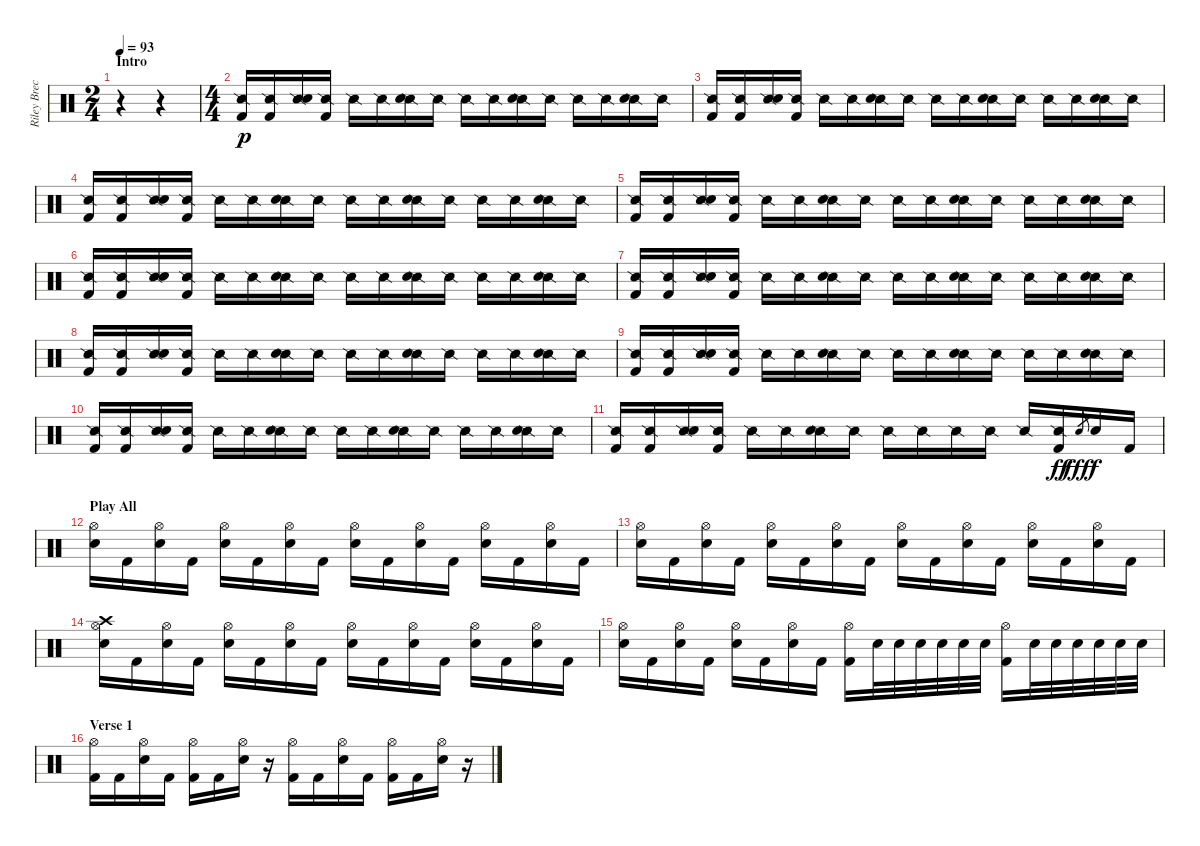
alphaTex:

\track ("Riley Breckenridge" "Riley Brec") {instrument percussion}
\staff {score}
\articulation defaults
\ts (2 4)
\section ("" "Intro")
\tempo 93
\clef neutral
\ks c
r.4{dy p} r.4 |
\ts (4 4)
("Snare (side stick) 2" "Kick (hit) 2").16 ("Snare (side stick) 2" "Kick (hit) 2").16 ("Snare (side stick) 2" "Electric Snare (hit)").16 ("Snare (side stick) 2" "Kick (hit) 2").16 "Snare (side stick) 2".16 "Snare (side stick) 2".16 ("Snare (side stick) 2" "Electric Snare (hit)").16 "Snare (side stick) 2".16 "Snare (side stick) 2".16 "Snare (side stick) 2".16 ("Snare (side stick) 2" "Electric Snare (hit)").16 "Snare (side stick) 2".16 "Snare (side stick) 2".16 "Snare (side stick) 2".16 ("Snare (side stick) 2" "Electric Snare (hit)").16 "Snare (side stick) 2".16 |
("Snare (side stick) 2" "Kick (hit) 2").16 ("Snare (side stick) 2" "Kick (hit) 2").16 ("Snare (side stick) 2" "Electric Snare (hit)").16 ("Snare (side stick) 2" "Kick (hit) 2").16 "Snare (side stick) 2".16 "Snare (side stick) 2".16 ("Snare (side stick) 2" "Electric Snare (hit)").16 "Snare (side stick) 2".16 "Snare (side stick) 2".16 "Snare (side stick) 2".16 ("Snare (side stick) 2" "Electric Snare (hit)").16 "Snare (side stick) 2".16 "Snare (side stick) 2".16 "Snare (side stick) 2".16 ("Snare (side stick) 2" "Electric Snare (hit)").16 "Snare (side stick) 2".16 |
("Snare (side stick) 2" "Kick (hit) 2").16 ("Snare (side stick) 2" "Kick (hit) 2").16 ("Snare (side stick) 2" "Electric Snare (hit)").16 ("Snare (side stick) 2" "Kick (hit) 2").16 "Snare (side stick) 2".16 "Snare (side stick) 2".16 ("Snare (side stick) 2" "Electric Snare (hit)").16 "Snare (side stick) 2".16 "Snare (side stick) 2".16 "Snare (side stick) 2".16 ("Snare (side stick) 2" "Electric Snare (hit)").16 "Snare (side stick) 2".16 "Snare (side stick) 2".16 "Snare (side stick) 2".16 ("Snare (side stick) 2" "Electric Snare (hit)").16 "Snare (side stick) 2".16 |
("Snare (side stick) 2" "Kick (hit) 2").16 ("Snare (side stick) 2" "Kick (hit) 2").16 ("Snare (side stick) 2" "Electric Snare (hit)").16 ("Snare (side stick) 2" "Kick (hit) 2").16 "Snare (side stick) 2".16 "Snare (side stick) 2".16 ("Snare (side stick) 2" "Electric Snare (hit)").16 "Snare (side stick) 2".16 "Snare (side stick) 2".16 "Snare (side stick) 2".16 ("Snare (side stick) 2" "Electric Snare (hit)").16 "Snare (side stick) 2".16 "Snare (side stick) 2".16 "Snare (side stick) 2".16 ("Snare (side stick) 2" "Electric Snare (hit)").16 "Snare (side stick) 2".16 |
("Snare (side stick) 2" "Kick (hit) 2").16 ("Snare (side stick) 2" "Kick (hit) 2").16 ("Snare (side stick) 2" "Electric Snare (hit)").16 ("Snare (side stick) 2" "Kick (hit) 2").16 "Snare (side stick) 2".16 "Snare (side stick) 2".16 ("Snare (side stick) 2" "Electric Snare (hit)").16 "Snare (side stick) 2".16 "Snare (side stick) 2".16 "Snare (side stick) 2".16 ("Snare (side stick) 2" "Electric Snare (hit)").16 "Snare (side stick) 2".16 "Snare (side stick) 2".16 "Snare (side stick) 2".16 ("Snare (side stick) 2" "Electric Snare (hit)").16 "Snare (side stick) 2".16 |
("Snare (side stick) 2" "Kick (hit) 2").16 ("Snare (side stick) 2" "Kick (hit) 2").16 ("Snare (side stick) 2" "Electric Snare (hit)").16 ("Snare (side stick) 2" "Kick (hit) 2").16 "Snare (side stick) 2".16 "Snare (side stick) 2".16 ("Snare (side stick) 2" "Electric Snare (hit)").16 "Snare (side stick) 2".16 "Snare (side stick) 2".16 "Snare (side stick) 2".16 ("Snare (side stick) 2" "Electric Snare (hit)").16 "Snare (side stick) 2".16 "Snare (side stick) 2".16 "Snare (side stick) 2".16 ("Snare (side stick) 2" "Electric Snare (hit)").16 "Snare (side stick) 2".16 |
("Snare (side stick) 2" "Kick (hit) 2").16 ("Snare (side stick) 2" "Kick (hit) 2").16 ("Snare (side stick) 2" "Electric Snare (hit)").16 ("Snare (side stick) 2" "Kick (hit) 2").16 "Snare (side stick) 2".16 "Snare (side stick) 2".16 ("Snare (side stick) 2" "Electric Snare (hit)").16 "Snare (side stick) 2".16 "Snare (side stick) 2".16 "Snare (side stick) 2".16 ("Snare (side stick) 2" "Electric Snare (hit)").16 "Snare (side stick) 2".16 "Snare (side stick) 2".16 "Snare (side stick) 2".16 ("Snare (side stick) 2" "Electric Snare (hit)").16 "Snare (side stick) 2".16 |
("Snare (side stick) 2" "Kick (hit) 2").16 ("Snare (side stick) 2" "Kick (hit) 2").16 ("Snare (side stick) 2" "Electric Snare (hit)").16 ("Snare (side stick) 2" "Kick (hit) 2").16 "Snare (side stick) 2".16 "Snare (side stick) 2".16 ("Snare (side stick) 2" "Electric Snare (hit)").16 "Snare (side stick) 2".16 "Snare (side stick) 2".16 "Snare (side stick) 2".16 ("Snare (side stick) 2" "Electric Snare (hit)").16 "Snare (side stick) 2".16 "Snare (side stick) 2".16 "Snare (side stick) 2".16 ("Snare (side stick) 2" "Electric Snare (hit)").16 "Snare (side stick) 2".16 |
("Snare (side stick) 2" "Kick (hit) 2").16 ("Snare (side stick) 2" "Kick (hit) 2").16 ("Snare (side stick) 2" "Electric Snare (hit)").16 ("Snare (side stick) 2" "Kick (hit) 2").16 "Snare (side stick) 2".16 "Snare (side stick) 2".16 ("Snare (side stick) 2" "Electric Snare (hit)").16 "Snare (side stick) 2".16 "Snare (side stick) 2".16 "Snare (side stick) 2".16 ("Snare (side stick) 2" "Electric Snare (hit)").16 "Snare (side stick) 2".16 "Snare (side stick) 2".16 "Snare (side stick) 2".16 ("Snare (side stick) 2" "Electric Snare (hit)").16 "Snare (side stick) 2".16 |
("Snare (side stick) 2" "Kick (hit) 2").16 ("Snare (side stick) 2" "Kick (hit) 2").16 ("Snare (side stick) 2" "Electric Snare (hit)").16 ("Snare (side stick) 2" "Kick (hit) 2").16 "Snare (side stick) 2".16 "Snare (side stick) 2".16 ("Snare (side stick) 2" "Electric Snare (hit)").16 "Snare (side stick) 2".16 "Snare (side stick) 2".16 "Snare (side stick) 2".16 "Snare (side stick) 2".16 "Snare (side stick) 2".16 "Snare (side stick) 2".16 ("Snare (side stick) 2" "Kick (hit) 2").16{dy ff} "Electric Snare (hit)".8{gr dy fff} "Electric Snare (hit)".16{dy f} "Kick (hit) 2".16 |
\section ("" "Play All")
("Electric Snare (hit)" "Hi-Hat (open)").16 "Kick (hit) 2".16 ("Electric Snare (hit)" "Hi-Hat (open)").16 "Kick (hit) 2".16 ("Electric Snare (hit)" "Hi-Hat (open)").16 "Kick (hit) 2".16 ("Electric Snare (hit)" "Hi-Hat (open)").16 "Kick (hit) 2".16 ("Electric Snare (hit)" "Hi-Hat (open)").16 "Kick (hit) 2".16 ("Electric Snare (hit)" "Hi-Hat (open)").16 "Kick (hit) 2".16 ("Electric Snare (hit)" "Hi-Hat (open)").16 "Kick (hit) 2".16 ("Electric Snare (hit)" "Hi-Hat (open)").16 "Kick (hit) 2".16 |
("Electric Snare (hit)" "Hi-Hat (open)").16 "Kick (hit) 2".16 ("Electric Snare (hit)" "Hi-Hat (open)").16 "Kick (hit) 2".16 ("Electric Snare (hit)" "Hi-Hat (open)").16 "Kick (hit) 2".16 ("Electric Snare (hit)" "Hi-Hat (open)").16 "Kick (hit) 2".16 ("Electric Snare (hit)" "Hi-Hat (open)").16 "Kick (hit) 2".16 ("Electric Snare (hit)" "Hi-Hat (open)").16 "Kick (hit) 2".16 ("Electric Snare (hit)" "Hi-Hat (open)").16 "Kick (hit) 2".16 ("Electric Snare (hit)" "Hi-Hat (open)").16 "Kick (hit) 2".16 |
("Crash high (hit)" "Electric Snare (hit)" "Hi-Hat (open)").16 "Kick (hit) 2".16 ("Electric Snare (hit)" "Hi-Hat (open)").16 "Kick (hit) 2".16 ("Electric Snare (hit)" "Hi-Hat (open)").16 "Kick (hit) 2".16 ("Electric Snare (hit)" "Hi-Hat (open)").16 "Kick (hit) 2".16 ("Electric Snare (hit)" "Hi-Hat (open)").16 "Kick (hit) 2".16 ("Electric Snare (hit)" "Hi-Hat (open)").16 "Kick (hit) 2".16 ("Electric Snare (hit)" "Hi-Hat (open)").16 "Kick (hit) 2".16 ("Electric Snare (hit)" "Hi-Hat (open)").16 "Kick (hit) 2".16 |
("Electric Snare (hit)" "Hi-Hat (open)").16 "Kick (hit) 2".16 ("Electric Snare (hit)" "Hi-Hat (open)").16 "Kick (hit) 2".16 ("Electric Snare (hit)" "Hi-Hat (open)").16 "Kick (hit) 2".16 ("Electric Snare (hit)" "Hi-Hat (open)").16 "Kick (hit) 2".16 ("Kick (hit) 2" "Hi-Hat (open)").16 "Electric Snare (hit)".32 "Electric Snare (hit)".32 "Electric Snare (hit)".32 "Electric Snare (hit)".32 "Electric Snare (hit)".32 "Electric Snare (hit)".32 ("Kick (hit) 2" "Hi-Hat (open)").16 "Electric Snare (hit)".32 "Electric Snare (hit)".32 "Electric Snare (hit)".32 "Electric Snare (hit)".32 "Electric Snare (hit)".32 "Electric Snare (hit)".32 |
\section ("" "Verse 1")
("Kick (hit) 2" "Hi-Hat (open)").16 "Kick (hit) 2".16 ("Electric Snare (hit)" "Hi-Hat (open)").16 "Kick (hit) 2".16 ("Kick (hit) 2" "Hi-Hat (open)").16 "Kick (hit) 2".16 ("Electric Snare (hit)" "Hi-Hat (open)").16 r.16 ("Kick (hit) 2" "Hi-Hat (open)").16 "Kick (hit) 2".16 ("Electric Snare (hit)" "Hi-Hat (open)").16 "Kick (hit) 2".16 ("Kick (hit) 2" "Hi-Hat (open)").16 "Kick (hit) 2".16 ("Electric Snare (hit)" "Hi-Hat (open)").16 r.16
